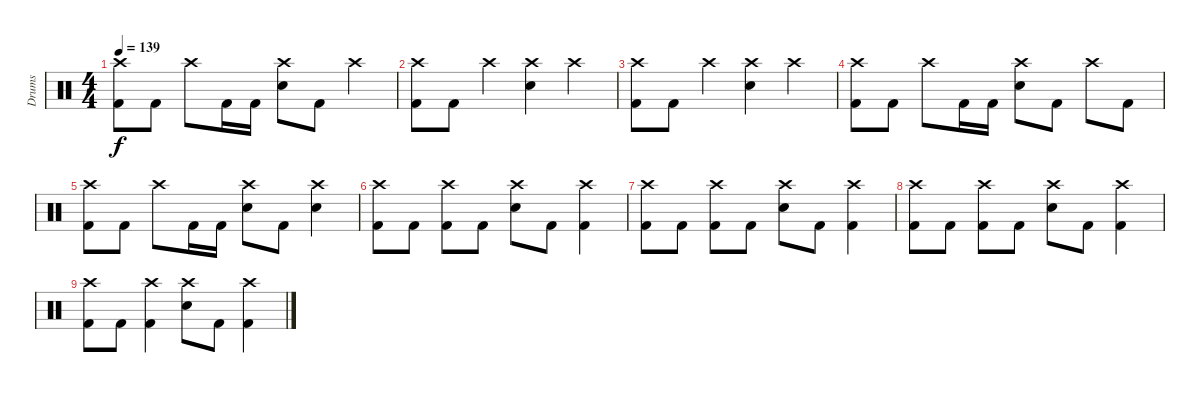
\track ("Drums" "Drums") {instrument percussion}
\staff {score}
\articulation defaults
\ts (4 4)
\tempo 139
\clef neutral
\ks c
("Crash high (hit)" "Kick (hit) 2").8{dy f} "Kick (hit) 2".8 "Crash high (hit)".8 "Kick (hit) 2".16 "Kick (hit) 2".16 ("Crash high (hit)" "Electric Snare (hit)").8 "Kick (hit) 2".8 "Crash high (hit)".4 |
("Crash high (hit)" "Kick (hit) 2").8{volume 8} "Kick (hit) 2".8 "Crash high (hit)".4 ("Crash high (hit)" "Electric Snare (hit)").4 "Crash high (hit)".4 |
("Crash high (hit)" "Kick (hit) 2").8 "Kick (hit) 2".8 "Crash high (hit)".4 ("Crash high (hit)" "Electric Snare (hit)").4 "Crash high (hit)".4 |
("Crash high (hit)" "Kick (hit) 2").8 "Kick (hit) 2".8 "Crash high (hit)".8 "Kick (hit) 2".16 "Kick (hit) 2".16 ("Crash high (hit)" "Electric Snare (hit)").8 "Kick (hit) 2".8 "Crash high (hit)".8 "Kick (hit) 2".8 |
("Crash high (hit)" "Kick (hit) 2").8 "Kick (hit) 2".8 "Crash high (hit)".8 "Kick (hit) 2".16 "Kick (hit) 2".16 ("Crash high (hit)" "Electric Snare (hit)").8 "Kick (hit) 2".8 ("Crash high (hit)" "Electric Snare (hit)").4 |
("Crash high (hit)" "Kick (hit) 2").8 "Kick (hit) 2".8 ("Crash high (hit)" "Kick (hit) 2").8 "Kick (hit) 2".8 ("Crash high (hit)" "Electric Snare (hit)").8 "Kick (hit) 2".8 ("Crash high (hit)" "Kick (hit) 2").4 |
("Crash high (hit)" "Kick (hit) 2").8 "Kick (hit) 2".8 ("Crash high (hit)" "Kick (hit) 2").8 "Kick (hit) 2".8 ("Crash high (hit)" "Electric Snare (hit)").8 "Kick (hit) 2".8 ("Crash high (hit)" "Kick (hit) 2").4 |
("Crash high (hit)" "Kick (hit) 2").8{volume 0} "Kick (hit) 2".8 ("Crash high (hit)" "Kick (hit) 2").8 "Kick (hit) 2".8 ("Crash high (hit)" "Electric Snare (hit)").8 "Kick (hit) 2".8 ("Crash high (hit)" "Kick (hit) 2").4 |
("Crash high (hit)" "Kick (hit) 2").8 "Kick (hit) 2".8 ("Crash high (hit)" "Kick (hit) 2").4 ("Crash high (hit)" "Electric Snare (hit)").8 "Kick (hit) 2".8 ("Crash high (hit)" "Kick (hit) 2").4
